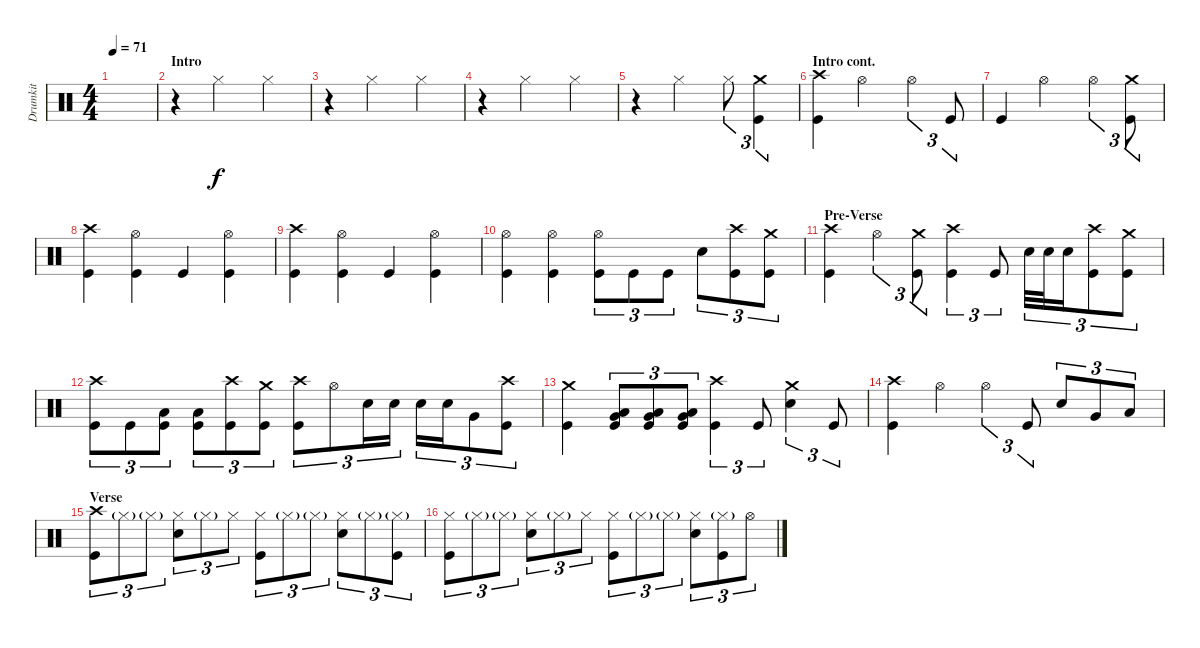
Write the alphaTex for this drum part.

\track ("Drumkit" "Drumkit") {instrument percussion}
\staff {score}
\articulation defaults
\ts (4 4)
\tempo 71
\clef neutral
\ks c
|
\section ("" "Intro")
r.4 "Hi-Hat (closed)".2 "Hi-Hat (closed)".4 |
r.4 "Hi-Hat (closed)".2 "Hi-Hat (closed)".4 |
r.4 "Hi-Hat (closed)".2 "Hi-Hat (closed)".4 |
r.4 "Hi-Hat (closed)".2 "Hi-Hat (closed)".8{tu (3 2)} ("Kick (hit)" "Crash medium (hit)").4{tu (3 2)} |
\section ("" "Intro cont.")
("Kick (hit)" "Crash high (hit)").4 "Hi-Hat (open)".2 "Hi-Hat (open)".4{tu (3 2)} "Kick (hit)".8{tu (3 2)} |
"Kick (hit)".4 "Hi-Hat (open)".2 "Hi-Hat (open)".4{tu (3 2)} ("Kick (hit)" "Crash medium (hit)").8{tu (3 2)} |
("Crash high (hit)" "Kick (hit)").4 ("Hi-Hat (open)" "Kick (hit)").4 "Kick (hit)".4 ("Hi-Hat (open)" "Kick (hit)").4 |
("Crash high (hit)" "Kick (hit)").4 ("Hi-Hat (open)" "Kick (hit)").4 "Kick (hit)".4 ("Hi-Hat (open)" "Kick (hit)").4 |
("Kick (hit)" "Hi-Hat (open)").4 ("Kick (hit)" "Hi-Hat (open)").4 ("Kick (hit)" "Hi-Hat (open)").8{tu (3 2)} "Kick (hit)".8{tu (3 2)} "Kick (hit)".8{tu (3 2)} "Snare (hit) 2".8{tu (3 2)} ("Kick (hit)" "Crash high (hit)").8{tu (3 2)} ("Kick (hit)" "Crash medium (hit)").8{tu (3 2)} |
\section ("" "Pre-Verse")
("Kick (hit)" "Crash high (hit)").4 "Hi-Hat (open)".4{tu (3 2)} ("Kick (hit)" "Crash medium (hit)").8{tu (3 2)} ("Kick (hit)" "Crash high (hit)").4{tu (3 2)} "Kick (hit)".8{tu (3 2)} "Snare (hit) 2".32{tu (3 2)} "Snare (hit) 2".32{tu (3 2)} "Snare (hit) 2".16{tu (3 2)} ("Kick (hit)" "Crash high (hit)").8{tu (3 2)} ("Kick (hit)" "Crash medium (hit)").8{tu (3 2)} |
("Kick (hit)" "Crash high (hit)").8{tu (3 2)} "Kick (hit)".8{tu (3 2)} ("Kick (hit)" "Low Floor Tom (hit)").8{tu (3 2)} ("Kick (hit)" "Low Floor Tom (hit)").8{tu (3 2)} ("Kick (hit)" "Crash high (hit)").8{tu (3 2)} ("Kick (hit)" "Crash medium (hit)").8{tu (3 2)} ("Kick (hit)" "Crash high (hit)").8{tu (3 2)} "Hi-Hat (open)".8{tu (3 2)} "Snare (hit) 2".16{tu (3 2)} "Snare (hit) 2".16{tu (3 2)} "Snare (hit) 2".16{tu (3 2)} "Snare (hit) 2".16{tu (3 2)} "Very Low Tom (hit)".8{tu (3 2)} ("Kick (hit)" "Crash high (hit)").8{tu (3 2)} |
("Kick (hit)" "Crash medium (hit)").4 ("Kick (hit)" "Low Floor Tom (hit)" "Very Low Tom (hit)").8{tu (3 2)} ("Kick (hit)" "Low Floor Tom (hit)" "Very Low Tom (hit)").8{tu (3 2)} ("Kick (hit)" "Low Floor Tom (hit)" "Very Low Tom (hit)").8{tu (3 2)} ("Kick (hit)" "Crash high (hit)").4{tu (3 2)} "Kick (hit)".8{tu (3 2)} ("Crash medium (hit)" "Snare (hit) 2").4{tu (3 2)} "Kick (hit)".8{tu (3 2)} |
("Kick (hit)" "Crash high (hit)").4 "Hi-Hat (open)".4 "Hi-Hat (open)".4{tu (3 2)} "Kick (hit)".8{tu (3 2)} "Snare (hit) 2".8{tu (3 2)} "Very Low Tom (hit)".8{tu (3 2)} "Low Floor Tom (hit)".8{tu (3 2)} |
\section ("" "Verse")
("Crash high (hit)" "Kick (hit)").8{tu (3 2)} "Hi-Hat (closed)"{g}.8{tu (3 2)} "Hi-Hat (closed)"{g}.8{tu (3 2)} ("Hi-Hat (closed)" "Snare (hit) 2").8{tu (3 2)} "Hi-Hat (closed)"{g}.8{tu (3 2)} "Hi-Hat (closed)".8{tu (3 2)} ("Hi-Hat (closed)" "Kick (hit)").8{tu (3 2)} "Hi-Hat (closed)"{g}.8{tu (3 2)} "Hi-Hat (closed)"{g}.8{tu (3 2)} ("Hi-Hat (closed)" "Snare (hit) 2").8{tu (3 2)} "Hi-Hat (closed)"{g}.8{tu (3 2)} ("Hi-Hat (closed)"{g} "Kick (hit)").8{tu (3 2)} |
("Kick (hit)" "Hi-Hat (closed)").8{tu (3 2)} "Hi-Hat (closed)"{g}.8{tu (3 2)} "Hi-Hat (closed)"{g}.8{tu (3 2)} ("Hi-Hat (closed)" "Snare (hit) 2").8{tu (3 2)} "Hi-Hat (closed)"{g}.8{tu (3 2)} "Hi-Hat (closed)".8{tu (3 2)} ("Hi-Hat (closed)" "Kick (hit)").8{tu (3 2)} "Hi-Hat (closed)"{g}.8{tu (3 2)} "Hi-Hat (closed)"{g}.8{tu (3 2)} ("Hi-Hat (closed)" "Snare (hit) 2").8{tu (3 2)} ("Hi-Hat (closed)"{g} "Kick (hit)").8{tu (3 2)} "Hi-Hat (open)".8{tu (3 2)}
